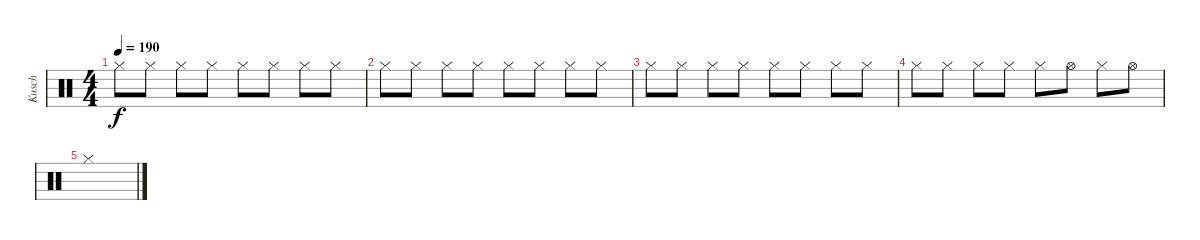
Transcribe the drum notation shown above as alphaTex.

\track ("Kusch" "Kusch") {instrument percussion}
\staff {score}
\articulation defaults
\ts (4 4)
\tempo 190
\clef neutral
\ks c "Hi-Hat (closed)".8{dy f} "Hi-Hat (closed)".8 "Hi-Hat (closed)".8 "Hi-Hat (closed)".8 "Hi-Hat (closed)".8 "Hi-Hat (closed)".8 "Hi-Hat (closed)".8 "Hi-Hat (closed)".8
|
"Hi-Hat (closed)".8 "Hi-Hat (closed)".8 "Hi-Hat (closed)".8 "Hi-Hat (closed)".8 "Hi-Hat (closed)".8 "Hi-Hat (closed)".8 "Hi-Hat (closed)".8 "Hi-Hat (closed)".8 |
"Hi-Hat (closed)".8 "Hi-Hat (closed)".8 "Hi-Hat (closed)".8 "Hi-Hat (closed)".8 "Hi-Hat (closed)".8 "Hi-Hat (closed)".8 "Hi-Hat (closed)".8 "Hi-Hat (closed)".8 |
"Hi-Hat (closed)".8 "Hi-Hat (closed)".8 "Hi-Hat (closed)".8 "Hi-Hat (closed)".8 "Hi-Hat (closed)".8 "Hi-Hat (open)".8 "Hi-Hat (closed)".8 "Hi-Hat (open)".8 |
"Hi-Hat (closed)".1
